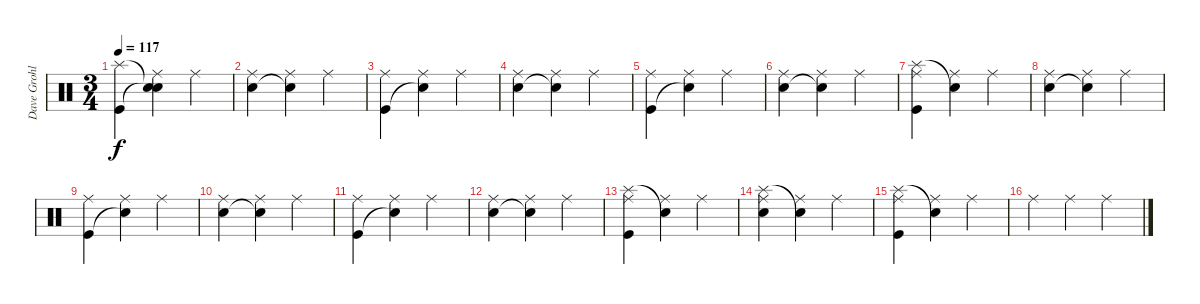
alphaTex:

\track ("Dave Grohl" "Dave Grohl") {instrument percussion}
\staff {score}
\articulation defaults
\ts (3 4)
\tempo 117
\clef neutral
\ks c
("Splash (hit)" "Kick (hit)").4{dy f} ("Snare (hit)"{t} "Snare (hit)"{t} "Ride (middle)").4 "Ride (middle)".4 |
("Electric Snare (hit)" "Ride (middle)").4 ("Snare (hit)"{t} "Ride (middle)").4 "Ride (middle)".4 |
("Kick (hit)" "Ride (middle)").4 ("Snare (hit)"{t} "Ride (middle)").4 "Ride (middle)".4 |
("Electric Snare (hit)" "Ride (middle)").4 ("Snare (hit)"{t} "Ride (middle)").4 "Ride (middle)".4 |
("Kick (hit)" "Ride (middle)").4 ("Snare (hit)"{t} "Ride (middle)").4 "Ride (middle)".4 |
("Electric Snare (hit)" "Ride (middle)").4 ("Snare (hit)"{t} "Ride (middle)").4 "Ride (middle)".4 |
("Splash (hit)" "Kick (hit)" "Ride (middle)").4 ("Snare (hit)"{t} "Ride (middle)").4 "Ride (middle)".4 |
("Electric Snare (hit)" "Ride (middle)").4 ("Snare (hit)"{t} "Ride (middle)").4 "Ride (middle)".4 |
("Kick (hit)" "Ride (middle)").4 ("Snare (hit)"{t} "Ride (middle)").4 "Ride (middle)".4 |
("Electric Snare (hit)" "Ride (middle)").4 ("Snare (hit)"{t} "Ride (middle)").4 "Ride (middle)".4 |
("Kick (hit)" "Ride (middle)").4 ("Snare (hit)"{t} "Ride (middle)").4 "Ride (middle)".4 |
("Electric Snare (hit)" "Ride (middle)").4 ("Snare (hit)"{t} "Ride (middle)").4 "Ride (middle)".4 |
("Splash (hit)" "Kick (hit)" "Ride (middle)").4 ("Snare (hit)"{t} "Ride (middle)").4 "Ride (middle)".4 |
("Splash (hit)" "Electric Snare (hit)" "Ride (middle)").4 ("Snare (hit)"{t} "Ride (middle)").4 "Ride (middle)".4 |
("Splash (hit)" "Kick (hit)" "Ride (middle)").4 ("Snare (hit)"{t} "Ride (middle)").4 "Ride (middle)".4 |
"Ride (middle)".4{volume 2} "Ride (middle)".4 "Ride (middle)".4
